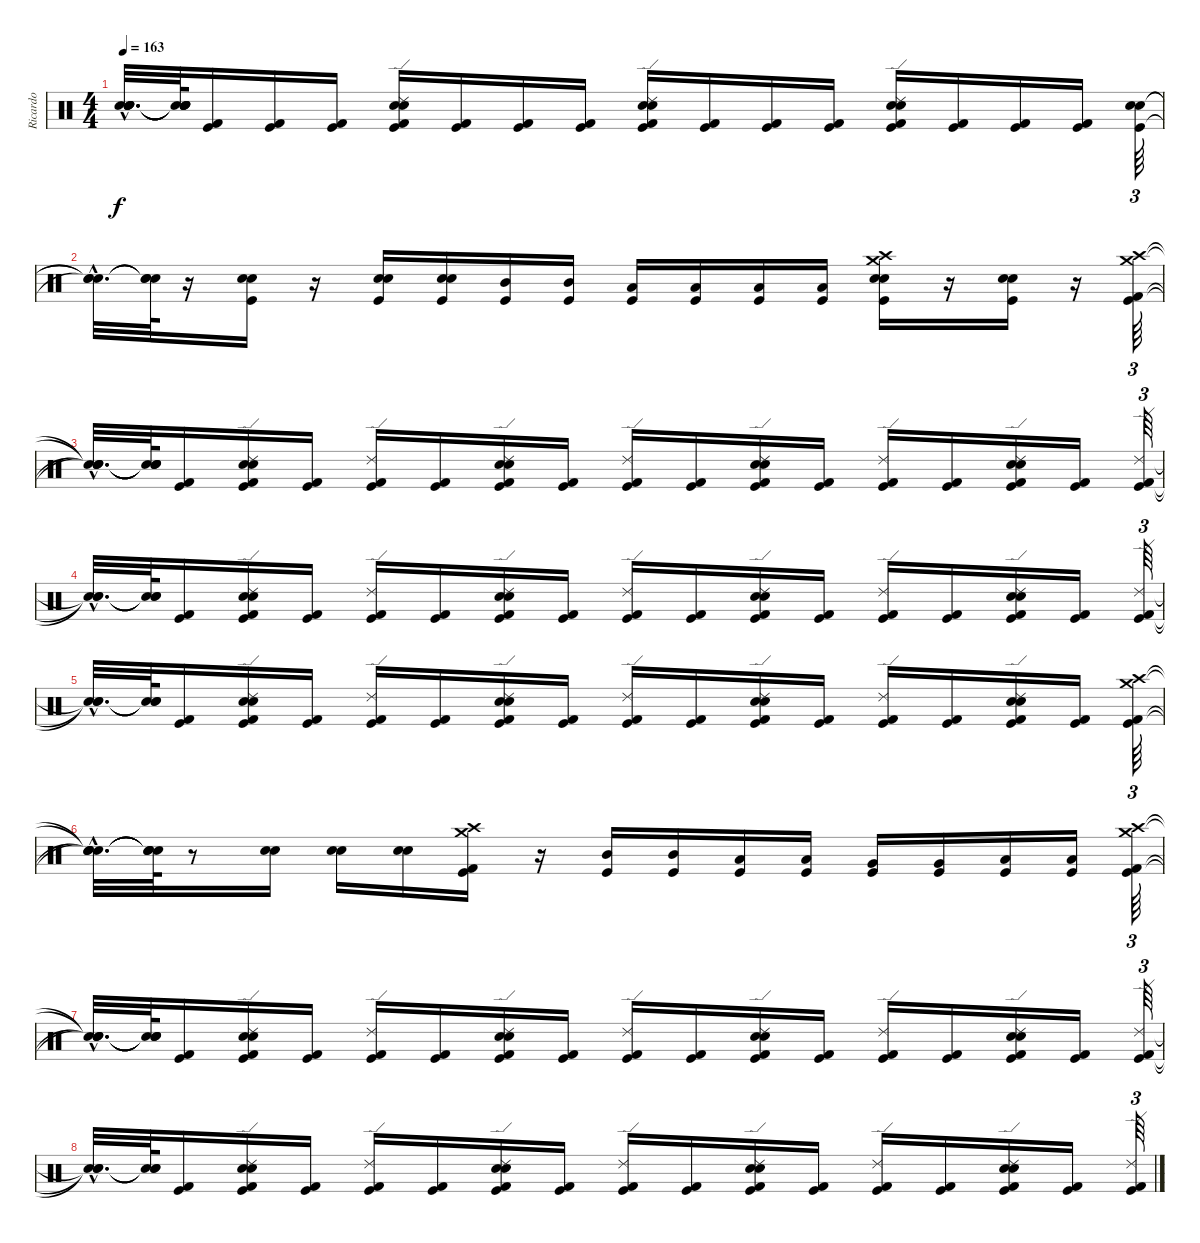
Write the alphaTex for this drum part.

\track ("Ricardo" "Ricardo") {instrument percussion}
\staff {score}
\articulation defaults
\ts (4 4)
\tempo 163
\clef neutral
\ks c
("Snare (hit)"{hac t} "Snare (hit)"{hac t} "Snare (hit)"{hac t} "Snare (hit)"{hac t} "Snare (hit)"{hac t}).32{d dy f} ("Snare (hit)"{t} "Snare (hit)"{t} "Snare (hit)"{t} "Snare (hit)"{t} "Snare (hit)"{t}).64 ("Kick (hit) 2" "Kick (hit)").16 ("Kick (hit) 2" "Kick (hit)").16 ("Kick (hit) 2" "Kick (hit)").16 ("Ride (edge) 2" "Electric Snare (hit)" "Snare (hit) 2" "Kick (hit) 2" "Kick (hit)").16 ("Kick (hit) 2" "Kick (hit)").16 ("Kick (hit) 2" "Kick (hit)").16 ("Kick (hit) 2" "Kick (hit)").16 ("Ride (edge) 2" "Electric Snare (hit)" "Snare (hit) 2" "Kick (hit) 2" "Kick (hit)").16 ("Kick (hit) 2" "Kick (hit)").16 ("Kick (hit) 2" "Kick (hit)").16 ("Kick (hit) 2" "Kick (hit)").16 ("Electric Snare (hit)" "Snare (hit) 2" "Ride (edge) 2" "Kick (hit) 2" "Kick (hit)").16 ("Kick (hit) 2" "Kick (hit)").16 ("Kick (hit) 2" "Kick (hit)").16 ("Kick (hit) 2" "Kick (hit)").16 ("Kick (hit)" "Electric Snare (hit)" "Snare (hit) 2").64{tu (3 2)} |
("Snare (hit)"{hac t} "Snare (hit)"{hac t} "Snare (hit)"{hac t}).32{d} ("Snare (hit)"{t} "Snare (hit)"{t} "Snare (hit)"{t}).64 r.16 ("Kick (hit)" "Electric Snare (hit)" "Snare (hit) 2").16 r.16 ("Kick (hit)" "Electric Snare (hit)" "Snare (hit) 2").16 ("Kick (hit)" "Electric Snare (hit)" "Snare (hit) 2").16 ("Kick (hit)" "Mid Tom (hit)").16 ("Kick (hit)" "Mid Tom (hit)").16 ("Kick (hit)" "Low Tom (hit)").16 ("Kick (hit)" "Low Tom (hit)").16 ("Kick (hit)" "Low Floor Tom (hit)").16 ("Kick (hit)" "Low Floor Tom (hit)").16 ("Kick (hit)" "Crash medium (hit)" "Crash high (hit)" "Electric Snare (hit)" "Snare (hit) 2").16 r.16 ("Kick (hit)" "Electric Snare (hit)" "Snare (hit) 2").16 r.16 ("Crash high (hit)" "Crash medium (hit)" "Kick (hit) 2" "Kick (hit)").64{tu (3 2)} |
("Snare (hit)"{hac t} "Snare (hit)"{hac t} "Snare (hit)"{hac t} "Snare (hit)"{hac t}).32{d} ("Snare (hit)"{t} "Snare (hit)"{t} "Snare (hit)"{t} "Snare (hit)"{t}).64 ("Kick (hit) 2" "Kick (hit)").16 ("Ride (edge) 2" "Electric Snare (hit)" "Snare (hit) 2" "Kick (hit) 2" "Kick (hit)").16 ("Kick (hit) 2" "Kick (hit)").16 ("Ride (edge) 2" "Kick (hit) 2" "Kick (hit)").16 ("Kick (hit) 2" "Kick (hit)").16 ("Ride (edge) 2" "Electric Snare (hit)" "Snare (hit) 2" "Kick (hit) 2" "Kick (hit)").16 ("Kick (hit) 2" "Kick (hit)").16 ("Ride (edge) 2" "Kick (hit) 2" "Kick (hit)").16 ("Kick (hit) 2" "Kick (hit)").16 ("Ride (edge) 2" "Electric Snare (hit)" "Snare (hit) 2" "Kick (hit) 2" "Kick (hit)").16 ("Kick (hit) 2" "Kick (hit)").16 ("Ride (edge) 2" "Kick (hit) 2" "Kick (hit)").16 ("Kick (hit) 2" "Kick (hit)").16 ("Ride (edge) 2" "Electric Snare (hit)" "Snare (hit) 2" "Kick (hit) 2" "Kick (hit)").16 ("Kick (hit) 2" "Kick (hit)").16 ("Ride (edge) 2" "Kick (hit) 2" "Kick (hit)").64{tu (3 2)} |
("Snare (hit)"{hac t} "Snare (hit)"{hac t} "Snare (hit)"{hac t}).32{d} ("Snare (hit)"{t} "Snare (hit)"{t} "Snare (hit)"{t}).64 ("Kick (hit) 2" "Kick (hit)").16 ("Ride (edge) 2" "Electric Snare (hit)" "Snare (hit) 2" "Kick (hit) 2" "Kick (hit)").16 ("Kick (hit) 2" "Kick (hit)").16 ("Ride (edge) 2" "Kick (hit) 2" "Kick (hit)").16 ("Kick (hit) 2" "Kick (hit)").16 ("Ride (edge) 2" "Electric Snare (hit)" "Snare (hit) 2" "Kick (hit) 2" "Kick (hit)").16 ("Kick (hit) 2" "Kick (hit)").16 ("Ride (edge) 2" "Kick (hit) 2" "Kick (hit)").16 ("Kick (hit) 2" "Kick (hit)").16 ("Ride (edge) 2" "Electric Snare (hit)" "Snare (hit) 2" "Kick (hit) 2" "Kick (hit)").16 ("Kick (hit) 2" "Kick (hit)").16 ("Ride (edge) 2" "Kick (hit) 2" "Kick (hit)").16 ("Kick (hit) 2" "Kick (hit)").16 ("Ride (edge) 2" "Electric Snare (hit)" "Snare (hit) 2" "Kick (hit) 2" "Kick (hit)").16 ("Kick (hit) 2" "Kick (hit)").16 ("Ride (edge) 2" "Kick (hit) 2" "Kick (hit)").64{tu (3 2)} |
("Snare (hit)"{hac t} "Snare (hit)"{hac t} "Snare (hit)"{hac t}).32{d} ("Snare (hit)"{t} "Snare (hit)"{t} "Snare (hit)"{t}).64 ("Kick (hit) 2" "Kick (hit)").16 ("Ride (edge) 2" "Electric Snare (hit)" "Snare (hit) 2" "Kick (hit) 2" "Kick (hit)").16 ("Kick (hit) 2" "Kick (hit)").16 ("Ride (edge) 2" "Kick (hit) 2" "Kick (hit)").16 ("Kick (hit) 2" "Kick (hit)").16 ("Ride (edge) 2" "Electric Snare (hit)" "Snare (hit) 2" "Kick (hit) 2" "Kick (hit)").16 ("Kick (hit) 2" "Kick (hit)").16 ("Ride (edge) 2" "Kick (hit) 2" "Kick (hit)").16 ("Kick (hit) 2" "Kick (hit)").16 ("Ride (edge) 2" "Electric Snare (hit)" "Snare (hit) 2" "Kick (hit) 2" "Kick (hit)").16 ("Kick (hit) 2" "Kick (hit)").16 ("Ride (edge) 2" "Kick (hit) 2" "Kick (hit)").16 ("Kick (hit) 2" "Kick (hit)").16 ("Ride (edge) 2" "Electric Snare (hit)" "Snare (hit) 2" "Kick (hit) 2" "Kick (hit)").16 ("Kick (hit) 2" "Kick (hit)").16 ("Crash high (hit)" "Crash medium (hit)" "Kick (hit) 2" "Kick (hit)").64{tu (3 2)} |
("Snare (hit)"{hac t} "Snare (hit)"{hac t} "Snare (hit)"{hac t} "Snare (hit)"{hac t}).32{d} ("Snare (hit)"{t} "Snare (hit)"{t} "Snare (hit)"{t} "Snare (hit)"{t}).64 r.8 ("Electric Snare (hit)" "Snare (hit) 2").16 ("Electric Snare (hit)" "Snare (hit) 2").16 ("Electric Snare (hit)" "Snare (hit) 2").16 ("Crash high (hit)" "Crash medium (hit)" "Kick (hit) 2" "Kick (hit)").16 r.16 ("Mid Tom (hit)" "Kick (hit)").16 ("Mid Tom (hit)" "Kick (hit)").16 ("Low Tom (hit)" "Kick (hit)").16 ("Low Tom (hit)" "Kick (hit)").16 ("Very Low Tom (hit)" "Kick (hit)").16 ("Very Low Tom (hit)" "Kick (hit)").16 ("Low Floor Tom (hit)" "Kick (hit)").16 ("Low Floor Tom (hit)" "Kick (hit)").16 ("Crash high (hit)" "Crash medium (hit)" "Kick (hit) 2" "Kick (hit)").64{tu (3 2)} |
("Snare (hit)"{hac t} "Snare (hit)"{hac t} "Snare (hit)"{hac t} "Snare (hit)"{hac t}).32{d} ("Snare (hit)"{t} "Snare (hit)"{t} "Snare (hit)"{t} "Snare (hit)"{t}).64 ("Kick (hit) 2" "Kick (hit)").16 ("Ride (edge) 2" "Electric Snare (hit)" "Snare (hit) 2" "Kick (hit) 2" "Kick (hit)").16 ("Kick (hit) 2" "Kick (hit)").16 ("Ride (edge) 2" "Kick (hit) 2" "Kick (hit)").16 ("Kick (hit) 2" "Kick (hit)").16 ("Ride (edge) 2" "Electric Snare (hit)" "Snare (hit) 2" "Kick (hit) 2" "Kick (hit)").16 ("Kick (hit) 2" "Kick (hit)").16 ("Ride (edge) 2" "Kick (hit) 2" "Kick (hit)").16 ("Kick (hit) 2" "Kick (hit)").16 ("Ride (edge) 2" "Electric Snare (hit)" "Snare (hit) 2" "Kick (hit) 2" "Kick (hit)").16 ("Kick (hit) 2" "Kick (hit)").16 ("Ride (edge) 2" "Kick (hit) 2" "Kick (hit)").16 ("Kick (hit) 2" "Kick (hit)").16 ("Ride (edge) 2" "Electric Snare (hit)" "Snare (hit) 2" "Kick (hit) 2" "Kick (hit)").16 ("Kick (hit) 2" "Kick (hit)").16 ("Ride (edge) 2" "Kick (hit) 2" "Kick (hit)").64{tu (3 2)} |
("Snare (hit)"{hac t} "Snare (hit)"{hac t} "Snare (hit)"{hac t}).32{d} ("Snare (hit)"{t} "Snare (hit)"{t} "Snare (hit)"{t}).64 ("Kick (hit) 2" "Kick (hit)").16 ("Ride (edge) 2" "Electric Snare (hit)" "Snare (hit) 2" "Kick (hit) 2" "Kick (hit)").16 ("Kick (hit) 2" "Kick (hit)").16 ("Ride (edge) 2" "Kick (hit) 2" "Kick (hit)").16 ("Kick (hit) 2" "Kick (hit)").16 ("Ride (edge) 2" "Electric Snare (hit)" "Snare (hit) 2" "Kick (hit) 2" "Kick (hit)").16 ("Kick (hit) 2" "Kick (hit)").16 ("Ride (edge) 2" "Kick (hit) 2" "Kick (hit)").16 ("Kick (hit) 2" "Kick (hit)").16 ("Ride (edge) 2" "Electric Snare (hit)" "Snare (hit) 2" "Kick (hit) 2" "Kick (hit)").16 ("Kick (hit) 2" "Kick (hit)").16 ("Ride (edge) 2" "Kick (hit) 2" "Kick (hit)").16 ("Kick (hit) 2" "Kick (hit)").16 ("Ride (edge) 2" "Electric Snare (hit)" "Snare (hit) 2" "Kick (hit) 2" "Kick (hit)").16 ("Kick (hit) 2" "Kick (hit)").16 ("Ride (edge) 2" "Kick (hit) 2" "Kick (hit)").64{tu (3 2)}
